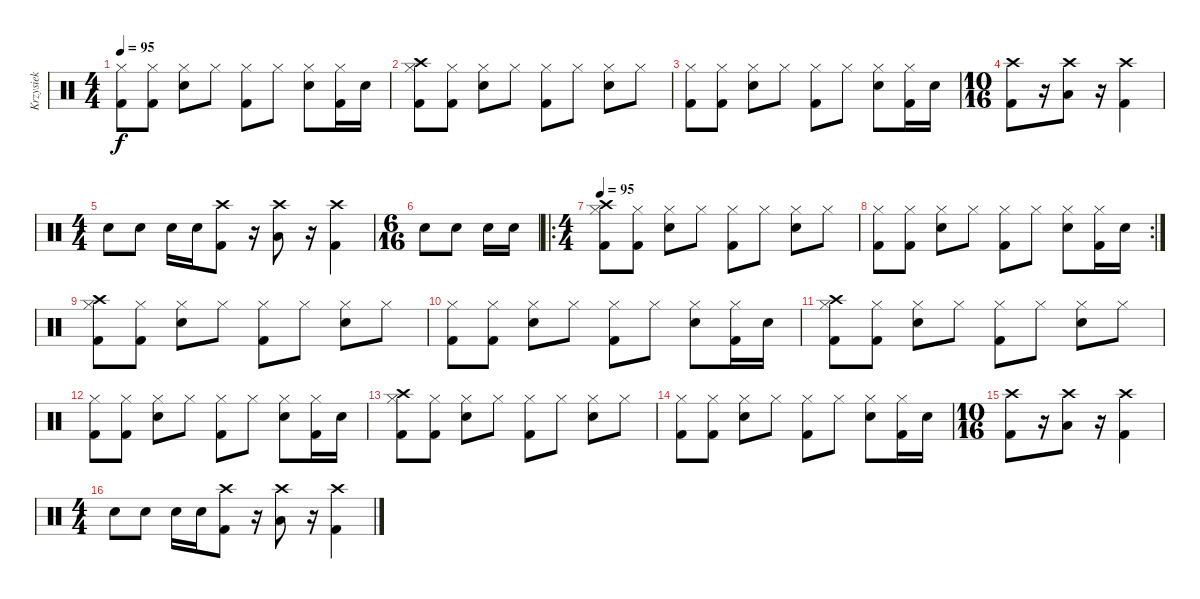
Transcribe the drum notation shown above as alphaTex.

\track ("Krzysiek" "Krzysiek") {instrument percussion}
\staff {score}
\articulation defaults
\ts (4 4)
\tempo 95
\clef neutral
\ks c
("Hi-Hat (closed)" "Kick (hit) 2").8{dy f} ("Hi-Hat (closed)" "Kick (hit) 2").8 ("Hi-Hat (closed)" "Electric Snare (hit)").8 "Hi-Hat (closed)".8 ("Hi-Hat (closed)" "Kick (hit) 2").8 "Hi-Hat (closed)".8 ("Hi-Hat (closed)" "Electric Snare (hit)").8 ("Hi-Hat (closed)" "Kick (hit) 2").16 "Electric Snare (hit)".16 |
("Hi-Hat (closed)" "Kick (hit) 2" "Crash high (hit)").8 ("Hi-Hat (closed)" "Kick (hit) 2").8 ("Hi-Hat (closed)" "Electric Snare (hit)").8 "Hi-Hat (closed)".8 ("Hi-Hat (closed)" "Kick (hit) 2").8 "Hi-Hat (closed)".8 ("Hi-Hat (closed)" "Electric Snare (hit)").8 "Hi-Hat (closed)".8 |
("Hi-Hat (closed)" "Kick (hit) 2").8 ("Hi-Hat (closed)" "Kick (hit) 2").8 ("Hi-Hat (closed)" "Electric Snare (hit)").8 "Hi-Hat (closed)".8 ("Hi-Hat (closed)" "Kick (hit) 2").8 "Hi-Hat (closed)".8 ("Hi-Hat (closed)" "Electric Snare (hit)").8 ("Hi-Hat (closed)" "Kick (hit) 2").16 "Electric Snare (hit)".16 |
\ts (10 16)
("Crash high (hit)" "Kick (hit) 2").8 r.16 ("Crash high (hit)" "Low Tom (hit)").8 r.16 ("Crash high (hit)" "Kick (hit) 2").4 |
\ts (4 4)
"Electric Snare (hit)".8 "Electric Snare (hit)".8 "Electric Snare (hit)".16 "Electric Snare (hit)".16 ("Crash high (hit)" "Kick (hit) 2").8 r.16 ("Crash high (hit)" "Low Tom (hit)").8 r.16 ("Crash high (hit)" "Kick (hit) 2").4 |
\ts (6 16)
"Electric Snare (hit)".8 "Electric Snare (hit)".8 "Electric Snare (hit)".16 "Electric Snare (hit)".16 |
\ro
\ts (4 4)
\tempo 95
("Hi-Hat (closed)" "Kick (hit) 2" "Crash high (hit)").8 ("Hi-Hat (closed)" "Kick (hit) 2").8 ("Hi-Hat (closed)" "Electric Snare (hit)").8 "Hi-Hat (closed)".8 ("Hi-Hat (closed)" "Kick (hit) 2").8 "Hi-Hat (closed)".8 ("Hi-Hat (closed)" "Electric Snare (hit)").8 "Hi-Hat (closed)".8 |
\rc 2
("Hi-Hat (closed)" "Kick (hit) 2").8 ("Hi-Hat (closed)" "Kick (hit) 2").8 ("Hi-Hat (closed)" "Electric Snare (hit)").8 "Hi-Hat (closed)".8 ("Hi-Hat (closed)" "Kick (hit) 2").8 "Hi-Hat (closed)".8 ("Hi-Hat (closed)" "Electric Snare (hit)").8 ("Hi-Hat (closed)" "Kick (hit) 2").16 "Electric Snare (hit)".16 |
("Hi-Hat (closed)" "Kick (hit) 2" "Crash high (hit)").8 ("Hi-Hat (closed)" "Kick (hit) 2").8 ("Hi-Hat (closed)" "Electric Snare (hit)").8 "Hi-Hat (closed)".8 ("Hi-Hat (closed)" "Kick (hit) 2").8 "Hi-Hat (closed)".8 ("Hi-Hat (closed)" "Electric Snare (hit)").8 "Hi-Hat (closed)".8 |
("Hi-Hat (closed)" "Kick (hit) 2").8 ("Hi-Hat (closed)" "Kick (hit) 2").8 ("Hi-Hat (closed)" "Electric Snare (hit)").8 "Hi-Hat (closed)".8 ("Hi-Hat (closed)" "Kick (hit) 2").8 "Hi-Hat (closed)".8 ("Hi-Hat (closed)" "Electric Snare (hit)").8 ("Hi-Hat (closed)" "Kick (hit) 2").16 "Electric Snare (hit)".16 |
("Hi-Hat (closed)" "Kick (hit) 2" "Crash high (hit)").8 ("Hi-Hat (closed)" "Kick (hit) 2").8 ("Hi-Hat (closed)" "Electric Snare (hit)").8 "Hi-Hat (closed)".8 ("Hi-Hat (closed)" "Kick (hit) 2").8 "Hi-Hat (closed)".8 ("Hi-Hat (closed)" "Electric Snare (hit)").8 "Hi-Hat (closed)".8 |
("Hi-Hat (closed)" "Kick (hit) 2").8 ("Hi-Hat (closed)" "Kick (hit) 2").8 ("Hi-Hat (closed)" "Electric Snare (hit)").8 "Hi-Hat (closed)".8 ("Hi-Hat (closed)" "Kick (hit) 2").8 "Hi-Hat (closed)".8 ("Hi-Hat (closed)" "Electric Snare (hit)").8 ("Hi-Hat (closed)" "Kick (hit) 2").16 "Electric Snare (hit)".16 |
("Hi-Hat (closed)" "Kick (hit) 2" "Crash high (hit)").8 ("Hi-Hat (closed)" "Kick (hit) 2").8 ("Hi-Hat (closed)" "Electric Snare (hit)").8 "Hi-Hat (closed)".8 ("Hi-Hat (closed)" "Kick (hit) 2").8 "Hi-Hat (closed)".8 ("Hi-Hat (closed)" "Electric Snare (hit)").8 "Hi-Hat (closed)".8 |
("Hi-Hat (closed)" "Kick (hit) 2").8 ("Hi-Hat (closed)" "Kick (hit) 2").8 ("Hi-Hat (closed)" "Electric Snare (hit)").8 "Hi-Hat (closed)".8 ("Hi-Hat (closed)" "Kick (hit) 2").8 "Hi-Hat (closed)".8 ("Hi-Hat (closed)" "Electric Snare (hit)").8 ("Hi-Hat (closed)" "Kick (hit) 2").16 "Electric Snare (hit)".16 |
\ts (10 16)
("Crash high (hit)" "Kick (hit) 2").8 r.16 ("Crash high (hit)" "Low Tom (hit)").8 r.16 ("Crash high (hit)" "Kick (hit) 2").4 |
\ts (4 4)
"Electric Snare (hit)".8 "Electric Snare (hit)".8 "Electric Snare (hit)".16 "Electric Snare (hit)".16 ("Crash high (hit)" "Kick (hit) 2").8 r.16 ("Crash high (hit)" "Low Tom (hit)").8 r.16 ("Crash high (hit)" "Kick (hit) 2").4
